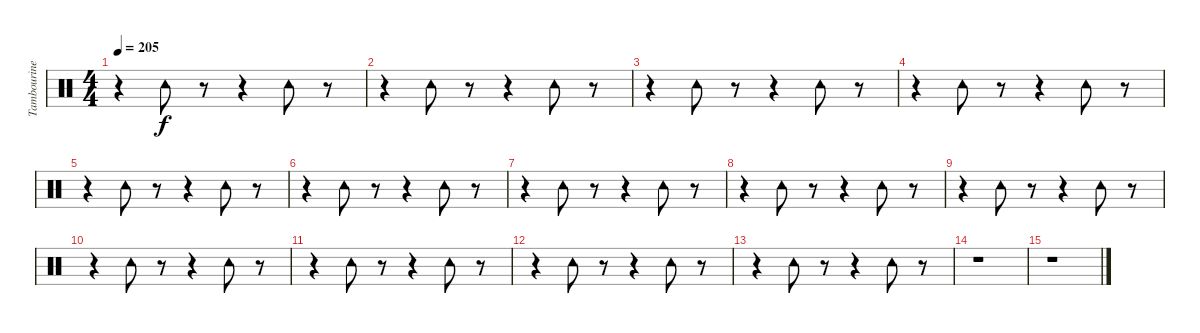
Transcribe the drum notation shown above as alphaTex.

\track ("Tambourine" "Tambourine") {instrument percussion}
\staff {score}
\articulation defaults
\ts (4 4)
\tempo 205
\clef neutral
\ks c
r.4{dy f} "Tambourine (hit)".8 r.8 r.4 "Tambourine (hit)".8 r.8 |
r.4 "Tambourine (hit)".8 r.8 r.4 "Tambourine (hit)".8 r.8 |
r.4 "Tambourine (hit)".8 r.8 r.4 "Tambourine (hit)".8 r.8 |
r.4 "Tambourine (hit)".8 r.8 r.4 "Tambourine (hit)".8 r.8 |
r.4 "Tambourine (hit)".8 r.8 r.4 "Tambourine (hit)".8 r.8 |
r.4 "Tambourine (hit)".8 r.8 r.4 "Tambourine (hit)".8 r.8 |
r.4 "Tambourine (hit)".8 r.8 r.4 "Tambourine (hit)".8 r.8 |
r.4 "Tambourine (hit)".8 r.8 r.4 "Tambourine (hit)".8 r.8 |
r.4 "Tambourine (hit)".8 r.8 r.4 "Tambourine (hit)".8 r.8 |
r.4 "Tambourine (hit)".8 r.8 r.4 "Tambourine (hit)".8 r.8 |
r.4 "Tambourine (hit)".8 r.8 r.4 "Tambourine (hit)".8 r.8 |
r.4 "Tambourine (hit)".8 r.8 r.4 "Tambourine (hit)".8 r.8 |
r.4 "Tambourine (hit)".8 r.8 r.4 "Tambourine (hit)".8 r.8 |
r.1 |
r.1
